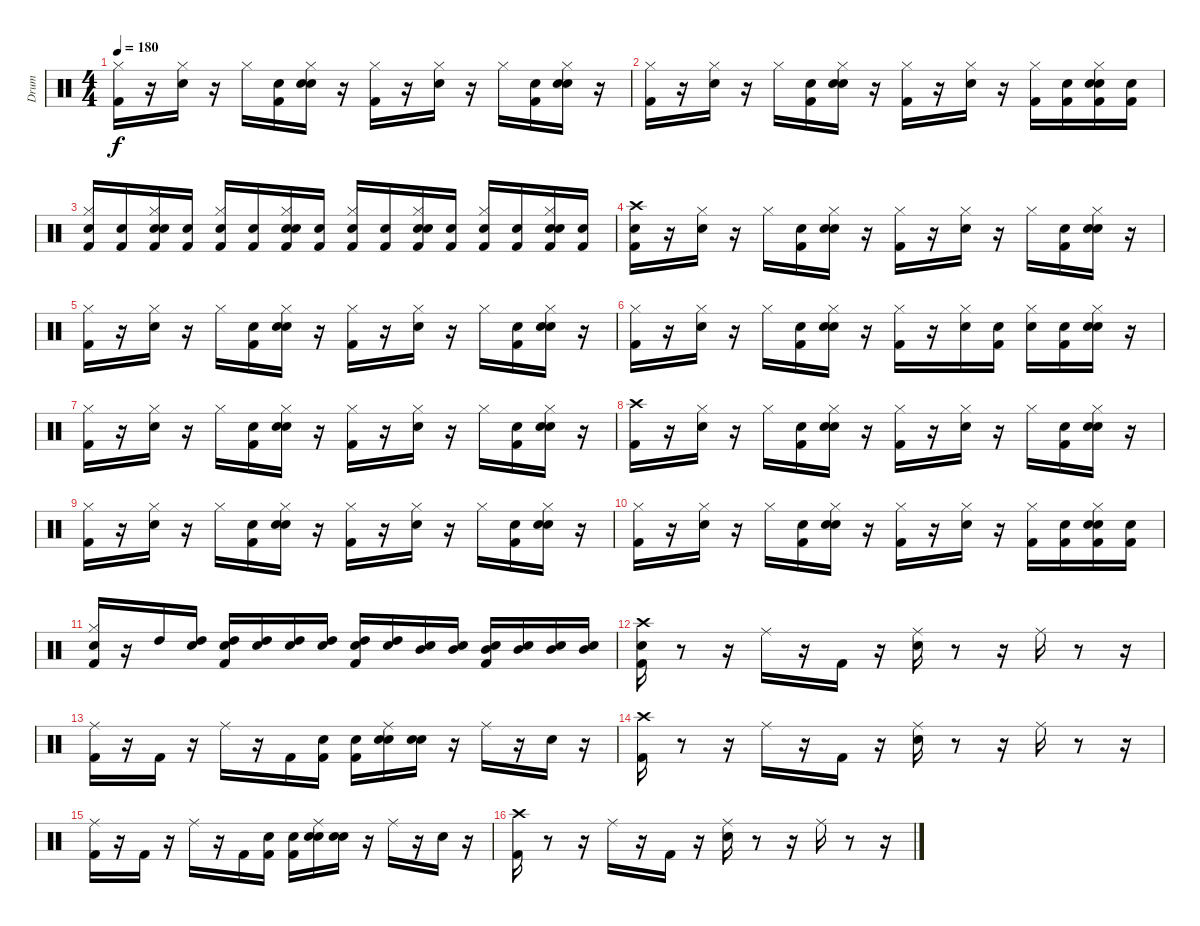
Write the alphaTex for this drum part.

\track ("Drum" "Drum") {instrument percussion}
\staff {score}
\articulation defaults
\ts (4 4)
\tempo 180
\clef neutral
\ks c
("Kick (hit) 2" "Hi-Hat (closed)").16{dy f} r.16 ("Snare (hit) 2" "Hi-Hat (closed)").16 r.16 "Hi-Hat (closed)".16 ("Snare (hit)" "Kick (hit) 2").16 ("Snare (hit)" "Snare (hit) 2" "Hi-Hat (closed)").16 r.16 ("Kick (hit) 2" "Hi-Hat (closed)").16 r.16 ("Snare (hit) 2" "Hi-Hat (closed)").16 r.16 "Hi-Hat (closed)".16 ("Snare (hit)" "Kick (hit) 2").16 ("Snare (hit)" "Snare (hit) 2" "Hi-Hat (closed)").16 r.16 |
("Kick (hit) 2" "Hi-Hat (closed)").16 r.16 ("Snare (hit) 2" "Hi-Hat (closed)").16 r.16 "Hi-Hat (closed)".16 ("Snare (hit)" "Kick (hit) 2").16 ("Snare (hit)" "Snare (hit) 2" "Hi-Hat (closed)").16 r.16 ("Kick (hit) 2" "Hi-Hat (closed)").16 r.16 ("Snare (hit) 2" "Hi-Hat (closed)").16 r.16 ("Kick (hit) 2" "Hi-Hat (closed)").16 ("Snare (hit)" "Kick (hit) 2").16 ("Snare (hit)" "Kick (hit) 2" "Snare (hit) 2" "Hi-Hat (closed)").16 ("Snare (hit)" "Kick (hit) 2").16 |
("Snare (hit)" "Kick (hit) 2" "Hi-Hat (closed)").16 ("Snare (hit)" "Kick (hit) 2").16 ("Snare (hit)" "Snare (hit) 2" "Kick (hit) 2" "Hi-Hat (closed)").16 ("Snare (hit)" "Kick (hit) 2").16 ("Snare (hit)" "Kick (hit) 2" "Hi-Hat (closed)").16 ("Snare (hit)" "Kick (hit) 2").16 ("Snare (hit)" "Snare (hit) 2" "Kick (hit) 2" "Hi-Hat (closed)").16 ("Snare (hit)" "Kick (hit) 2").16 ("Snare (hit)" "Kick (hit) 2" "Hi-Hat (closed)").16 ("Snare (hit)" "Kick (hit) 2").16 ("Snare (hit)" "Snare (hit) 2" "Kick (hit) 2" "Hi-Hat (closed)").16 ("Snare (hit)" "Kick (hit) 2").16 ("Snare (hit)" "Kick (hit) 2" "Hi-Hat (closed)").16 ("Snare (hit)" "Kick (hit) 2").16 ("Snare (hit)" "Snare (hit) 2" "Kick (hit) 2" "Hi-Hat (closed)").16 ("Snare (hit)" "Kick (hit) 2").16 |
("Snare (hit)" "Kick (hit) 2" "Crash high (hit)").16 r.16 ("Snare (hit) 2" "Hi-Hat (closed)").16 r.16 "Hi-Hat (closed)".16 ("Snare (hit)" "Kick (hit) 2").16 ("Snare (hit)" "Snare (hit) 2" "Hi-Hat (closed)").16 r.16 ("Kick (hit) 2" "Hi-Hat (closed)").16 r.16 ("Snare (hit) 2" "Hi-Hat (closed)").16 r.16 "Hi-Hat (closed)".16 ("Snare (hit)" "Kick (hit) 2").16 ("Snare (hit)" "Snare (hit) 2" "Hi-Hat (closed)").16 r.16 |
("Kick (hit) 2" "Hi-Hat (closed)").16 r.16 ("Snare (hit) 2" "Hi-Hat (closed)").16 r.16 "Hi-Hat (closed)".16 ("Snare (hit)" "Kick (hit) 2").16 ("Snare (hit)" "Snare (hit) 2" "Hi-Hat (closed)").16 r.16 ("Kick (hit) 2" "Hi-Hat (closed)").16 r.16 ("Snare (hit) 2" "Hi-Hat (closed)").16 r.16 "Hi-Hat (closed)".16 ("Snare (hit)" "Kick (hit) 2").16 ("Snare (hit)" "Snare (hit) 2" "Hi-Hat (closed)").16 r.16 |
("Kick (hit) 2" "Hi-Hat (closed)").16 r.16 ("Hi-Hat (closed)" "Snare (hit) 2").16 r.16 "Hi-Hat (closed)".16 ("Snare (hit)" "Kick (hit) 2").16 ("Snare (hit)" "Snare (hit) 2" "Hi-Hat (closed)").16 r.16 ("Kick (hit) 2" "Hi-Hat (closed)").16 r.16 ("Snare (hit) 2" "Hi-Hat (closed)").16 ("Snare (hit)" "Kick (hit) 2").16 ("Snare (hit)" "Hi-Hat (closed)").16 ("Snare (hit)" "Kick (hit) 2").16 ("Snare (hit)" "Snare (hit) 2" "Hi-Hat (closed)").16 r.16 |
("Kick (hit) 2" "Hi-Hat (closed)").16 r.16 ("Snare (hit) 2" "Hi-Hat (closed)").16 r.16 "Hi-Hat (closed)".16 ("Snare (hit)" "Kick (hit) 2").16 ("Snare (hit)" "Snare (hit) 2" "Hi-Hat (closed)").16 r.16 ("Kick (hit) 2" "Hi-Hat (closed)").16 r.16 ("Snare (hit) 2" "Hi-Hat (closed)").16 r.16 "Hi-Hat (closed)".16 ("Snare (hit)" "Kick (hit) 2").16 ("Snare (hit)" "Snare (hit) 2" "Hi-Hat (closed)").16 r.16 |
("Kick (hit) 2" "Crash high (hit)").16 r.16 ("Snare (hit) 2" "Hi-Hat (closed)").16 r.16 "Hi-Hat (closed)".16 ("Snare (hit)" "Kick (hit) 2").16 ("Snare (hit)" "Snare (hit) 2" "Hi-Hat (closed)").16 r.16 ("Kick (hit) 2" "Hi-Hat (closed)").16 r.16 ("Snare (hit) 2" "Hi-Hat (closed)").16 r.16 "Hi-Hat (closed)".16 ("Snare (hit)" "Kick (hit) 2").16 ("Snare (hit)" "Snare (hit) 2" "Hi-Hat (closed)").16 r.16 |
("Kick (hit) 2" "Hi-Hat (closed)").16 r.16 ("Snare (hit) 2" "Hi-Hat (closed)").16 r.16 "Hi-Hat (closed)".16 ("Snare (hit)" "Kick (hit) 2").16 ("Snare (hit)" "Snare (hit) 2" "Hi-Hat (closed)").16 r.16 ("Kick (hit) 2" "Hi-Hat (closed)").16 r.16 ("Snare (hit) 2" "Hi-Hat (closed)").16 r.16 "Hi-Hat (closed)".16 ("Snare (hit)" "Kick (hit) 2").16 ("Snare (hit)" "Snare (hit) 2" "Hi-Hat (closed)").16 r.16 |
("Kick (hit) 2" "Hi-Hat (closed)").16 r.16 ("Snare (hit) 2" "Hi-Hat (closed)").16 r.16 "Hi-Hat (closed)".16 ("Snare (hit)" "Kick (hit) 2").16 ("Snare (hit)" "Snare (hit) 2" "Hi-Hat (closed)").16 r.16 ("Kick (hit) 2" "Hi-Hat (closed)").16 r.16 ("Snare (hit) 2" "Hi-Hat (closed)").16 r.16 ("Kick (hit) 2" "Hi-Hat (closed)").16 ("Snare (hit)" "Kick (hit) 2").16 ("Snare (hit)" "Kick (hit) 2" "Snare (hit) 2" "Hi-Hat (closed)").16 ("Snare (hit)" "Kick (hit) 2").16 |
("Snare (hit)" "Hi-Hat (closed)" "Kick (hit) 2").16 r.16 "High Tom (hit)".16 ("Snare (hit)" "High Tom (hit)").16 ("Snare (hit)" "High Tom (hit)" "Kick (hit) 2").16 ("Snare (hit)" "High Tom (hit)").16 ("Snare (hit)" "High Tom (hit)").16 ("Snare (hit)" "High Tom (hit)").16 ("Snare (hit)" "High Tom (hit)" "Kick (hit) 2").16 ("Snare (hit)" "High Tom (hit)").16 ("Snare (hit)" "Mid Tom (hit)").16 ("Snare (hit)" "Mid Tom (hit)").16 ("Snare (hit)" "Mid Tom (hit)" "Kick (hit) 2").16 ("Snare (hit)" "Mid Tom (hit)").16 ("Snare (hit)" "Mid Tom (hit)").16 ("Snare (hit)" "Mid Tom (hit)").16 |
("Snare (hit)" "Crash high (hit)" "Kick (hit) 2").16 r.8 r.16 "Ride (middle)".16 r.16 "Kick (hit) 2".16 r.16 ("Snare (hit) 2" "Ride (middle)").16 r.8 r.16 "Ride (middle)".16 r.8 r.16 |
("Kick (hit) 2" "Ride (middle)").16 r.16 "Kick (hit) 2".16 r.16 "Ride (middle)".16 r.16 "Kick (hit) 2".16 ("Snare (hit)" "Kick (hit) 2").16 ("Snare (hit)" "Kick (hit) 2").16 ("Snare (hit)" "Ride (middle)" "Snare (hit) 2").16 ("Snare (hit)" "Snare (hit) 2").16 r.16 "Ride (middle)".16 r.16 "Snare (hit) 2".16 r.16 |
("Crash high (hit)" "Kick (hit) 2").16 r.8 r.16 "Ride (middle)".16 r.16 "Kick (hit) 2".16 r.16 ("Snare (hit) 2" "Ride (middle)").16 r.8 r.16 "Ride (middle)".16 r.8 r.16 |
("Kick (hit) 2" "Ride (middle)").16 r.16 "Kick (hit) 2".16 r.16 "Ride (middle)".16 r.16 "Kick (hit) 2".16 ("Snare (hit)" "Kick (hit) 2").16 ("Snare (hit)" "Kick (hit) 2").16 ("Snare (hit)" "Ride (middle)" "Snare (hit) 2").16 ("Snare (hit)" "Snare (hit) 2").16 r.16 "Ride (middle)".16 r.16 "Snare (hit) 2".16 r.16 |
("Crash high (hit)" "Kick (hit) 2").16 r.8 r.16 "Ride (middle)".16 r.16 "Kick (hit) 2".16 r.16 ("Snare (hit) 2" "Ride (middle)").16 r.8 r.16 "Ride (middle)".16 r.8 r.16
